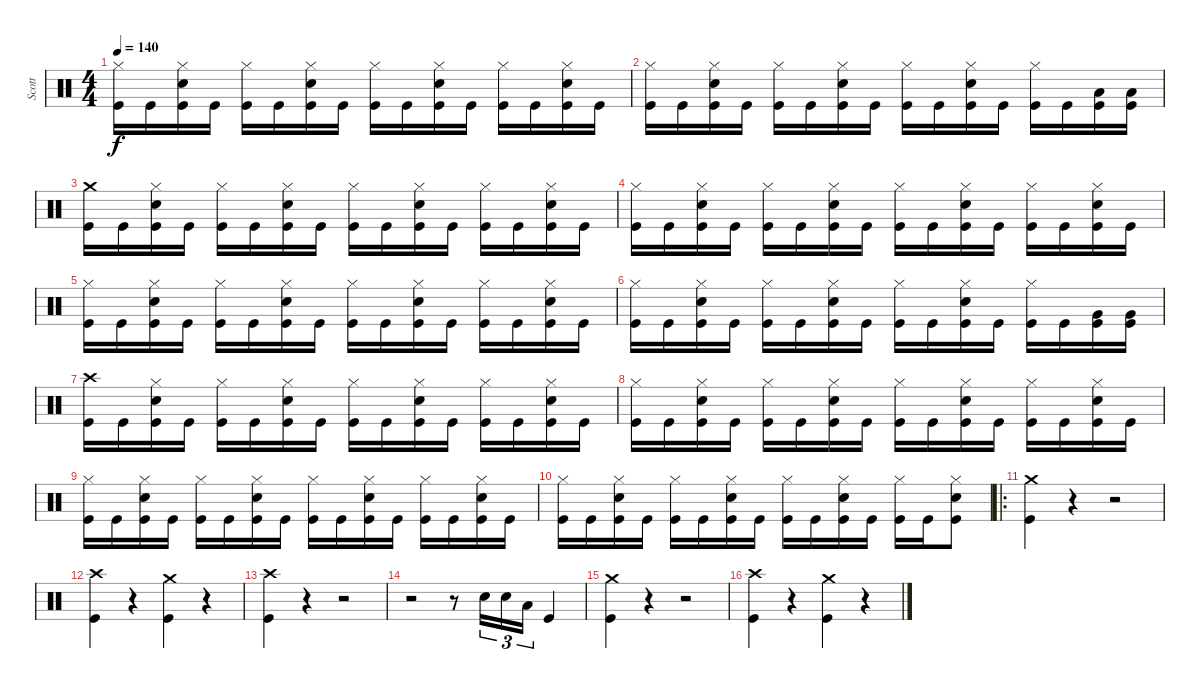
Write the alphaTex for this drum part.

\track ("Scott" "Scott") {instrument percussion}
\staff {score}
\articulation defaults
\ts (4 4)
\tempo 140
\clef neutral
\ks c
("Kick (hit)" "Hi-Hat (closed)").16{dy f} "Kick (hit)".16 ("Kick (hit)" "Snare (hit) 2" "Hi-Hat (closed)").16 "Kick (hit)".16 ("Kick (hit)" "Hi-Hat (closed)").16 "Kick (hit)".16 ("Kick (hit)" "Snare (hit) 2" "Hi-Hat (closed)").16 "Kick (hit)".16 ("Kick (hit)" "Hi-Hat (closed)").16 "Kick (hit)".16 ("Kick (hit)" "Snare (hit) 2" "Hi-Hat (closed)").16 "Kick (hit)".16 ("Kick (hit)" "Hi-Hat (closed)").16 "Kick (hit)".16 ("Kick (hit)" "Snare (hit) 2" "Hi-Hat (closed)").16 "Kick (hit)".16 |
("Kick (hit)" "Hi-Hat (closed)").16 "Kick (hit)".16 ("Kick (hit)" "Snare (hit) 2" "Hi-Hat (closed)").16 "Kick (hit)".16 ("Kick (hit)" "Hi-Hat (closed)").16 "Kick (hit)".16 ("Kick (hit)" "Snare (hit) 2" "Hi-Hat (closed)").16 "Kick (hit)".16 ("Kick (hit)" "Hi-Hat (closed)").16 "Kick (hit)".16 ("Kick (hit)" "Snare (hit) 2" "Hi-Hat (closed)").16 "Kick (hit)".16 ("Kick (hit)" "Hi-Hat (closed)").16 "Kick (hit)".16 ("Kick (hit)" "Low Tom (hit)").16 ("Kick (hit)" "Low Tom (hit)").16 |
("Kick (hit)" "Crash medium (hit)").16 "Kick (hit)".16 ("Kick (hit)" "Snare (hit) 2" "Hi-Hat (closed)").16 "Kick (hit)".16 ("Kick (hit)" "Hi-Hat (closed)").16 "Kick (hit)".16 ("Kick (hit)" "Snare (hit) 2" "Hi-Hat (closed)").16 "Kick (hit)".16 ("Kick (hit)" "Hi-Hat (closed)").16 "Kick (hit)".16 ("Kick (hit)" "Snare (hit) 2" "Hi-Hat (closed)").16 "Kick (hit)".16 ("Kick (hit)" "Hi-Hat (closed)").16 "Kick (hit)".16 ("Kick (hit)" "Snare (hit) 2" "Hi-Hat (closed)").16 "Kick (hit)".16 |
("Kick (hit)" "Hi-Hat (closed)").16 "Kick (hit)".16 ("Kick (hit)" "Snare (hit) 2" "Hi-Hat (closed)").16 "Kick (hit)".16 ("Kick (hit)" "Hi-Hat (closed)").16 "Kick (hit)".16 ("Kick (hit)" "Snare (hit) 2" "Hi-Hat (closed)").16 "Kick (hit)".16 ("Kick (hit)" "Hi-Hat (closed)").16 "Kick (hit)".16 ("Kick (hit)" "Snare (hit) 2" "Hi-Hat (closed)").16 "Kick (hit)".16 ("Kick (hit)" "Hi-Hat (closed)").16 "Kick (hit)".16 ("Kick (hit)" "Snare (hit) 2" "Hi-Hat (closed)").16 "Kick (hit)".16 |
("Kick (hit)" "Hi-Hat (closed)").16 "Kick (hit)".16 ("Kick (hit)" "Snare (hit) 2" "Hi-Hat (closed)").16 "Kick (hit)".16 ("Kick (hit)" "Hi-Hat (closed)").16 "Kick (hit)".16 ("Kick (hit)" "Snare (hit) 2" "Hi-Hat (closed)").16 "Kick (hit)".16 ("Kick (hit)" "Hi-Hat (closed)").16 "Kick (hit)".16 ("Kick (hit)" "Snare (hit) 2" "Hi-Hat (closed)").16 "Kick (hit)".16 ("Kick (hit)" "Hi-Hat (closed)").16 "Kick (hit)".16 ("Kick (hit)" "Snare (hit) 2" "Hi-Hat (closed)").16 "Kick (hit)".16 |
("Kick (hit)" "Hi-Hat (closed)").16 "Kick (hit)".16 ("Kick (hit)" "Snare (hit) 2" "Hi-Hat (closed)").16 "Kick (hit)".16 ("Kick (hit)" "Hi-Hat (closed)").16 "Kick (hit)".16 ("Kick (hit)" "Snare (hit) 2" "Hi-Hat (closed)").16 "Kick (hit)".16 ("Kick (hit)" "Hi-Hat (closed)").16 "Kick (hit)".16 ("Kick (hit)" "Snare (hit) 2" "Hi-Hat (closed)").16 "Kick (hit)".16 ("Kick (hit)" "Hi-Hat (closed)").16 "Kick (hit)".16 ("Kick (hit)" "Very Low Tom (hit)").16 ("Kick (hit)" "Very Low Tom (hit)").16 |
("Kick (hit)" "Crash high (hit)").16 "Kick (hit)".16 ("Kick (hit)" "Snare (hit) 2" "Hi-Hat (closed)").16 "Kick (hit)".16 ("Kick (hit)" "Hi-Hat (closed)").16 "Kick (hit)".16 ("Kick (hit)" "Snare (hit) 2" "Hi-Hat (closed)").16 "Kick (hit)".16 ("Kick (hit)" "Hi-Hat (closed)").16 "Kick (hit)".16 ("Kick (hit)" "Snare (hit) 2" "Hi-Hat (closed)").16 "Kick (hit)".16 ("Kick (hit)" "Hi-Hat (closed)").16 "Kick (hit)".16 ("Kick (hit)" "Snare (hit) 2" "Hi-Hat (closed)").16 "Kick (hit)".16 |
("Kick (hit)" "Hi-Hat (closed)").16 "Kick (hit)".16 ("Kick (hit)" "Snare (hit) 2" "Hi-Hat (closed)").16 "Kick (hit)".16 ("Kick (hit)" "Hi-Hat (closed)").16 "Kick (hit)".16 ("Kick (hit)" "Snare (hit) 2" "Hi-Hat (closed)").16 "Kick (hit)".16 ("Kick (hit)" "Hi-Hat (closed)").16 "Kick (hit)".16 ("Kick (hit)" "Snare (hit) 2" "Hi-Hat (closed)").16 "Kick (hit)".16 ("Kick (hit)" "Hi-Hat (closed)").16 "Kick (hit)".16 ("Kick (hit)" "Snare (hit) 2" "Hi-Hat (closed)").16 "Kick (hit)".16 |
("Kick (hit)" "Hi-Hat (closed)").16 "Kick (hit)".16 ("Kick (hit)" "Snare (hit) 2" "Hi-Hat (closed)").16 "Kick (hit)".16 ("Kick (hit)" "Hi-Hat (closed)").16 "Kick (hit)".16 ("Kick (hit)" "Snare (hit) 2" "Hi-Hat (closed)").16 "Kick (hit)".16 ("Kick (hit)" "Hi-Hat (closed)").16 "Kick (hit)".16 ("Kick (hit)" "Snare (hit) 2" "Hi-Hat (closed)").16 "Kick (hit)".16 ("Kick (hit)" "Hi-Hat (closed)").16 "Kick (hit)".16 ("Kick (hit)" "Snare (hit) 2" "Hi-Hat (closed)").16 "Kick (hit)".16 |
("Kick (hit)" "Hi-Hat (closed)").16 "Kick (hit)".16 ("Kick (hit)" "Snare (hit) 2" "Hi-Hat (closed)").16 "Kick (hit)".16 ("Kick (hit)" "Hi-Hat (closed)").16 "Kick (hit)".16 ("Kick (hit)" "Snare (hit) 2" "Hi-Hat (closed)").16 "Kick (hit)".16 ("Kick (hit)" "Hi-Hat (closed)").16 "Kick (hit)".16 ("Kick (hit)" "Snare (hit) 2" "Hi-Hat (closed)").16 "Kick (hit)".16 ("Kick (hit)" "Hi-Hat (closed)").16 "Kick (hit)".16 ("Kick (hit)" "Snare (hit) 2" "Hi-Hat (closed)").8 |
\ro
("Kick (hit)" "Crash medium (hit)").4 r.4 r.2 |
("Kick (hit)" "Crash high (hit)").4 r.4 ("Kick (hit)" "Crash medium (hit)").4 r.4 |
("Kick (hit)" "Crash high (hit)").4 r.4 r.2 |
r.2 r.8 "Snare (hit) 2".16{tu (3 2)} "Snare (hit) 2".16{tu (3 2)} "Low Tom (hit)".16{tu (3 2)} "Kick (hit)".4 |
("Kick (hit)" "Crash medium (hit)").4 r.4 r.2 |
("Kick (hit)" "Crash high (hit)").4 r.4 ("Kick (hit)" "Crash medium (hit)").4 r.4
